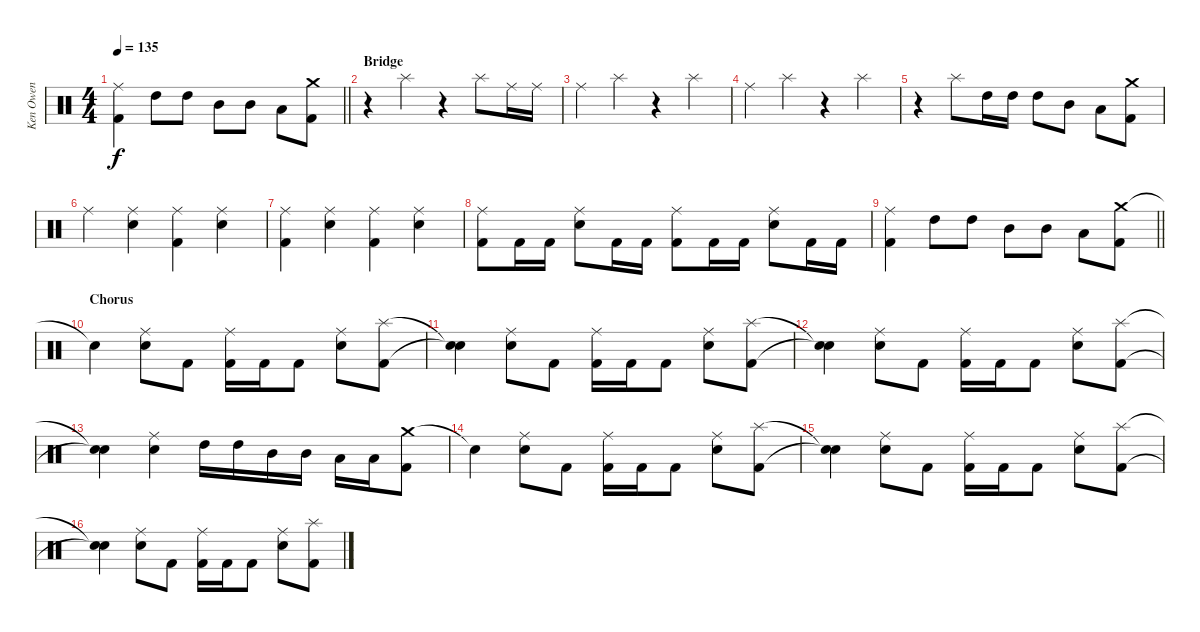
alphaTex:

\track ("Ken Owen" "Ken Owen") {instrument percussion}
\staff {score}
\articulation defaults
\ts (4 4)
\tempo 135
\clef neutral
\barLineRight lightlight
\ks c
("Ride (middle)" "Kick (hit) 2").4{dy f} "High Tom (hit)".8 "High Tom (hit)".8 "Mid Tom (hit)".8 "Mid Tom (hit)".8 "Low Tom (hit)".8 ("Crash medium (hit)" "Kick (hit) 2").8 |
\section ("" "Bridge")
r.4 "Splash (hit)".4 r.4 "Splash (hit)".8 "Ride (middle)".16 "Ride (middle)".16 |
"Ride (middle)".4 "Splash (hit)".4 r.4 "Splash (hit)".4 |
"Ride (middle)".4 "Splash (hit)".4 r.4 "Splash (hit)".4 |
r.4 "Splash (hit)".8 "High Tom (hit)".16 "High Tom (hit)".16 "High Tom (hit)".8 "Mid Tom (hit)".8 "Low Tom (hit)".8 ("Crash medium (hit)" "Kick (hit) 2").8 |
"Ride (middle)".4 ("Ride (middle)" "Electric Snare (hit)").4 ("Ride (middle)" "Kick (hit) 2").4 ("Ride (middle)" "Electric Snare (hit)").4 |
("Ride (middle)" "Kick (hit) 2").4 ("Ride (middle)" "Electric Snare (hit)").4 ("Ride (middle)" "Kick (hit) 2").4 ("Ride (middle)" "Electric Snare (hit)").4 |
("Ride (middle)" "Kick (hit) 2").8 "Kick (hit) 2".16 "Kick (hit) 2".16 ("Ride (middle)" "Electric Snare (hit)").8 "Kick (hit) 2".16 "Kick (hit) 2".16 ("Ride (middle)" "Kick (hit) 2").8 "Kick (hit) 2".16 "Kick (hit) 2".16 ("Ride (middle)" "Electric Snare (hit)").8 "Kick (hit) 2".16 "Kick (hit) 2".16 |
\barLineRight lightlight
("Ride (middle)" "Kick (hit) 2").4 "High Tom (hit)".8 "High Tom (hit)".8 "Mid Tom (hit)".8 "Mid Tom (hit)".8 "Low Tom (hit)".8 ("Crash medium (hit)" "Kick (hit) 2").8 |
\section ("" "Chorus")
"Snare (hit)"{t}.4 ("Ride (middle)" "Electric Snare (hit)").8 "Kick (hit) 2".8 ("Ride (middle)" "Kick (hit) 2").16 "Kick (hit) 2".16 "Kick (hit) 2".8 ("Ride (middle)" "Electric Snare (hit)").8 ("Splash (hit)" "Kick (hit) 2").8 |
("Snare (hit)"{t} "Snare (hit)"{t}).4 ("Ride (middle)" "Electric Snare (hit)").8 "Kick (hit) 2".8 ("Ride (middle)" "Kick (hit) 2").16 "Kick (hit) 2".16 "Kick (hit) 2".8 ("Ride (middle)" "Electric Snare (hit)").8 ("Splash (hit)" "Kick (hit) 2").8 |
("Snare (hit)"{t} "Snare (hit)"{t}).4 ("Ride (middle)" "Electric Snare (hit)").8 "Kick (hit) 2".8 ("Ride (middle)" "Kick (hit) 2").16 "Kick (hit) 2".16 "Kick (hit) 2".8 ("Ride (middle)" "Electric Snare (hit)").8 ("Splash (hit)" "Kick (hit) 2").8 |
("Snare (hit)"{t} "Snare (hit)"{t}).4 ("Ride (middle)" "Electric Snare (hit)").4 "High Tom (hit)".16 "High Tom (hit)".16 "Mid Tom (hit)".16 "Mid Tom (hit)".16 "Low Tom (hit)".16 "Low Tom (hit)".16 ("Crash medium (hit)" "Kick (hit) 2").8 |
"Snare (hit)"{t}.4 ("Ride (middle)" "Electric Snare (hit)").8 "Kick (hit) 2".8 ("Ride (middle)" "Kick (hit) 2").16 "Kick (hit) 2".16 "Kick (hit) 2".8 ("Ride (middle)" "Electric Snare (hit)").8 ("Splash (hit)" "Kick (hit) 2").8 |
("Snare (hit)"{t} "Snare (hit)"{t}).4 ("Ride (middle)" "Electric Snare (hit)").8 "Kick (hit) 2".8 ("Ride (middle)" "Kick (hit) 2").16 "Kick (hit) 2".16 "Kick (hit) 2".8 ("Ride (middle)" "Electric Snare (hit)").8 ("Splash (hit)" "Kick (hit) 2").8 |
("Snare (hit)"{t} "Snare (hit)"{t}).4 ("Ride (middle)" "Electric Snare (hit)").8 "Kick (hit) 2".8 ("Ride (middle)" "Kick (hit) 2").16 "Kick (hit) 2".16 "Kick (hit) 2".8 ("Ride (middle)" "Electric Snare (hit)").8 ("Splash (hit)" "Kick (hit) 2").8
